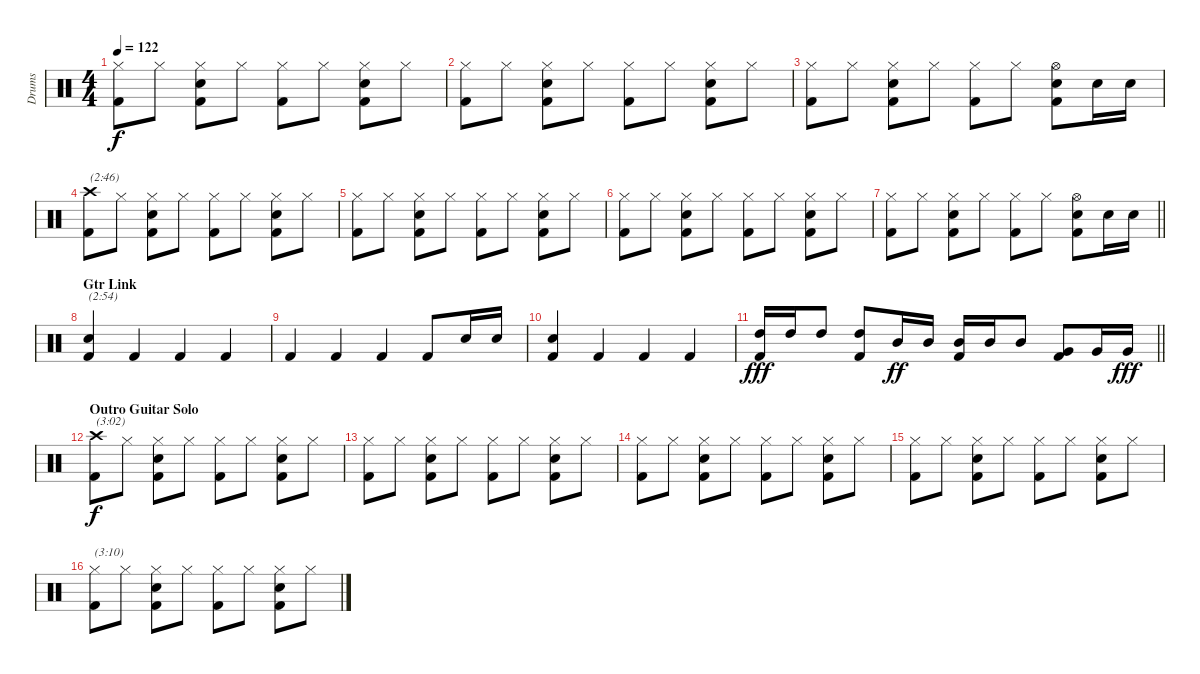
\track ("Drums" "Drums") {instrument percussion}
\staff {score}
\articulation defaults
\ts (4 4)
\tempo 122
\clef neutral
\ks c
("Hi-Hat (closed)" "Kick (hit) 2").8{dy f} "Hi-Hat (closed)".8 ("Hi-Hat (closed)" "Electric Snare (hit)" "Kick (hit) 2").8 "Hi-Hat (closed)".8 ("Hi-Hat (closed)" "Kick (hit) 2").8 "Hi-Hat (closed)".8 ("Hi-Hat (closed)" "Electric Snare (hit)" "Kick (hit) 2").8 "Hi-Hat (closed)".8 |
("Hi-Hat (closed)" "Kick (hit) 2").8 "Hi-Hat (closed)".8 ("Hi-Hat (closed)" "Electric Snare (hit)" "Kick (hit) 2").8 "Hi-Hat (closed)".8 ("Hi-Hat (closed)" "Kick (hit) 2").8 "Hi-Hat (closed)".8 ("Hi-Hat (closed)" "Electric Snare (hit)" "Kick (hit) 2").8 "Hi-Hat (closed)".8 |
("Hi-Hat (closed)" "Kick (hit) 2").8 "Hi-Hat (closed)".8 ("Hi-Hat (closed)" "Electric Snare (hit)" "Kick (hit) 2").8 "Hi-Hat (closed)".8 ("Hi-Hat (closed)" "Kick (hit) 2").8 "Hi-Hat (closed)".8 ("Hi-Hat (open)" "Electric Snare (hit)" "Kick (hit) 2").8 "Electric Snare (hit)".16 "Electric Snare (hit)".16 |
("Crash high (hit)" "Kick (hit) 2").8{txt "(2:46)"} "Hi-Hat (closed)".8 ("Hi-Hat (closed)" "Electric Snare (hit)" "Kick (hit) 2").8 "Hi-Hat (closed)".8 ("Hi-Hat (closed)" "Kick (hit) 2").8 "Hi-Hat (closed)".8 ("Hi-Hat (closed)" "Electric Snare (hit)" "Kick (hit) 2").8 "Hi-Hat (closed)".8 |
("Hi-Hat (closed)" "Kick (hit) 2").8 "Hi-Hat (closed)".8 ("Hi-Hat (closed)" "Electric Snare (hit)" "Kick (hit) 2").8 "Hi-Hat (closed)".8 ("Hi-Hat (closed)" "Kick (hit) 2").8 "Hi-Hat (closed)".8 ("Hi-Hat (closed)" "Electric Snare (hit)" "Kick (hit) 2").8 "Hi-Hat (closed)".8 |
("Hi-Hat (closed)" "Kick (hit) 2").8 "Hi-Hat (closed)".8 ("Hi-Hat (closed)" "Electric Snare (hit)" "Kick (hit) 2").8 "Hi-Hat (closed)".8 ("Hi-Hat (closed)" "Kick (hit) 2").8 "Hi-Hat (closed)".8 ("Hi-Hat (closed)" "Electric Snare (hit)" "Kick (hit) 2").8 "Hi-Hat (closed)".8 |
\barLineRight lightlight
("Hi-Hat (closed)" "Kick (hit) 2").8 "Hi-Hat (closed)".8 ("Hi-Hat (closed)" "Electric Snare (hit)" "Kick (hit) 2").8 "Hi-Hat (closed)".8 ("Hi-Hat (closed)" "Kick (hit) 2").8 "Hi-Hat (closed)".8 ("Hi-Hat (open)" "Electric Snare (hit)" "Kick (hit) 2").8 "Electric Snare (hit)".16 "Electric Snare (hit)".16 |
\section ("" "Gtr Link")
("Electric Snare (hit)" "Kick (hit) 2").4{txt "(2:54)"} "Kick (hit) 2".4 "Kick (hit) 2".4 "Kick (hit) 2".4 |
"Kick (hit) 2".4 "Kick (hit) 2".4 "Kick (hit) 2".4 "Kick (hit) 2".8 "Electric Snare (hit)".16 "Electric Snare (hit)".16 |
("Electric Snare (hit)" "Kick (hit) 2").4 "Kick (hit) 2".4 "Kick (hit) 2".4 "Kick (hit) 2".4 |
\barLineRight lightlight
("High Tom (hit)" "Kick (hit) 2").16{dy fff} "High Tom (hit)".16 "High Tom (hit)".8 ("High Tom (hit)" "Kick (hit) 2").8 "Mid Tom (hit)".16{dy ff} "Mid Tom (hit)".16 ("Mid Tom (hit)" "Kick (hit) 2").16 "Mid Tom (hit)".16 "Mid Tom (hit)".8 ("Very Low Tom (hit)" "Kick (hit) 2").8 "Very Low Tom (hit)".16 "Very Low Tom (hit)".16{dy fff} |
\section ("" "Outro Guitar Solo")
("Crash high (hit)" "Kick (hit) 2").8{txt "(3:02)" dy f} "Hi-Hat (closed)".8 ("Hi-Hat (closed)" "Electric Snare (hit)" "Kick (hit) 2").8 "Hi-Hat (closed)".8 ("Hi-Hat (closed)" "Kick (hit) 2").8 "Hi-Hat (closed)".8 ("Hi-Hat (closed)" "Electric Snare (hit)" "Kick (hit) 2").8 "Hi-Hat (closed)".8 |
("Hi-Hat (closed)" "Kick (hit) 2").8 "Hi-Hat (closed)".8 ("Hi-Hat (closed)" "Electric Snare (hit)" "Kick (hit) 2").8 "Hi-Hat (closed)".8 ("Hi-Hat (closed)" "Kick (hit) 2").8 "Hi-Hat (closed)".8 ("Hi-Hat (closed)" "Electric Snare (hit)" "Kick (hit) 2").8 "Hi-Hat (closed)".8 |
("Hi-Hat (closed)" "Kick (hit) 2").8 "Hi-Hat (closed)".8 ("Hi-Hat (closed)" "Electric Snare (hit)" "Kick (hit) 2").8 "Hi-Hat (closed)".8 ("Hi-Hat (closed)" "Kick (hit) 2").8 "Hi-Hat (closed)".8 ("Hi-Hat (closed)" "Electric Snare (hit)" "Kick (hit) 2").8 "Hi-Hat (closed)".8 |
("Hi-Hat (closed)" "Kick (hit) 2").8 "Hi-Hat (closed)".8 ("Hi-Hat (closed)" "Electric Snare (hit)" "Kick (hit) 2").8 "Hi-Hat (closed)".8 ("Hi-Hat (closed)" "Kick (hit) 2").8 "Hi-Hat (closed)".8 ("Hi-Hat (closed)" "Electric Snare (hit)" "Kick (hit) 2").8 "Hi-Hat (closed)".8 |
("Hi-Hat (closed)" "Kick (hit) 2").8{txt "(3:10)"} "Hi-Hat (closed)".8 ("Hi-Hat (closed)" "Electric Snare (hit)" "Kick (hit) 2").8 "Hi-Hat (closed)".8 ("Hi-Hat (closed)" "Kick (hit) 2").8 "Hi-Hat (closed)".8 ("Hi-Hat (closed)" "Electric Snare (hit)" "Kick (hit) 2").8 "Hi-Hat (closed)".8
